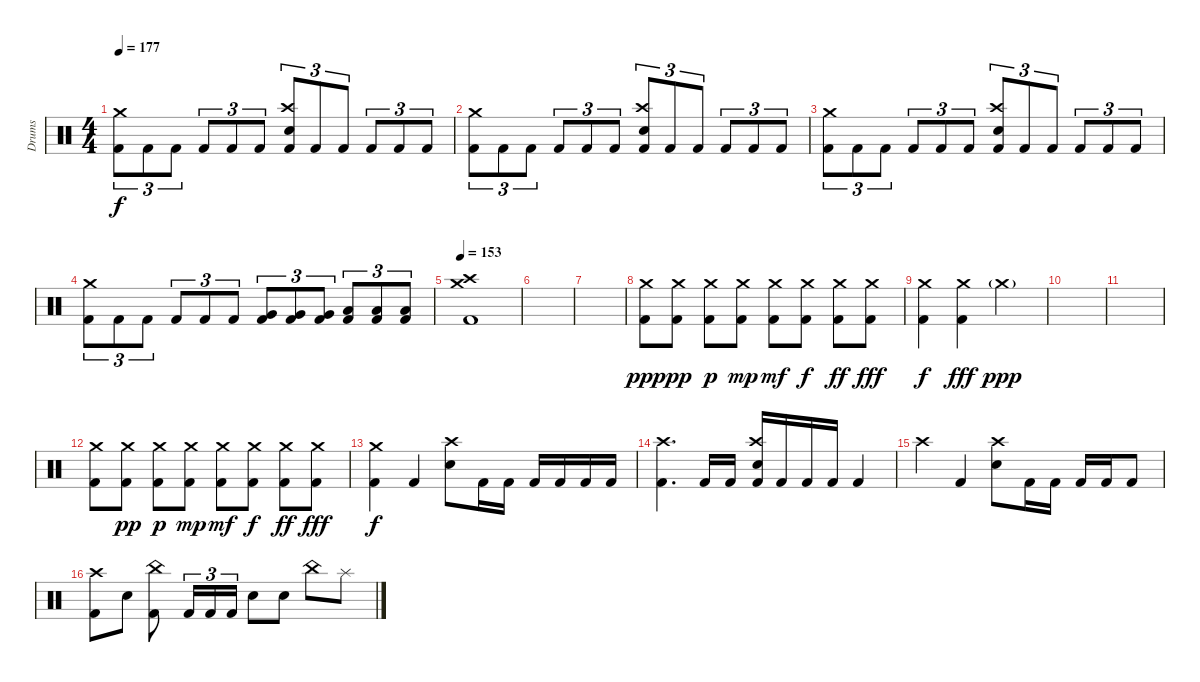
\track ("Drums" "Drums") {instrument percussion}
\staff
\articulation defaults
\ts (4 4)
\tempo 177
\clef neutral
\ks c
("Crash medium (hit)" "Kick (hit) 2").8{tu (3 2) dy f} "Kick (hit) 2".8{tu (3 2)} "Kick (hit) 2".8{tu (3 2)} "Kick (hit) 2".8{tu (3 2)} "Kick (hit) 2".8{tu (3 2)} "Kick (hit) 2".8{tu (3 2)} ("Crash high (hit)" "Electric Snare (hit)" "Kick (hit) 2").8{tu (3 2)} "Kick (hit) 2".8{tu (3 2)} "Kick (hit) 2".8{tu (3 2)} "Kick (hit) 2".8{tu (3 2)} "Kick (hit) 2".8{tu (3 2)} "Kick (hit) 2".8{tu (3 2)} |
("Crash medium (hit)" "Kick (hit) 2").8{tu (3 2)} "Kick (hit) 2".8{tu (3 2)} "Kick (hit) 2".8{tu (3 2)} "Kick (hit) 2".8{tu (3 2)} "Kick (hit) 2".8{tu (3 2)} "Kick (hit) 2".8{tu (3 2)} ("Crash high (hit)" "Electric Snare (hit)" "Kick (hit) 2").8{tu (3 2)} "Kick (hit) 2".8{tu (3 2)} "Kick (hit) 2".8{tu (3 2)} "Kick (hit) 2".8{tu (3 2)} "Kick (hit) 2".8{tu (3 2)} "Kick (hit) 2".8{tu (3 2)} |
("Crash medium (hit)" "Kick (hit) 2").8{tu (3 2)} "Kick (hit) 2".8{tu (3 2)} "Kick (hit) 2".8{tu (3 2)} "Kick (hit) 2".8{tu (3 2)} "Kick (hit) 2".8{tu (3 2)} "Kick (hit) 2".8{tu (3 2)} ("Crash high (hit)" "Electric Snare (hit)" "Kick (hit) 2").8{tu (3 2)} "Kick (hit) 2".8{tu (3 2)} "Kick (hit) 2".8{tu (3 2)} "Kick (hit) 2".8{tu (3 2)} "Kick (hit) 2".8{tu (3 2)} "Kick (hit) 2".8{tu (3 2)} |
("Crash medium (hit)" "Kick (hit) 2").8{tu (3 2)} "Kick (hit) 2".8{tu (3 2)} "Kick (hit) 2".8{tu (3 2)} "Kick (hit) 2".8{tu (3 2)} "Kick (hit) 2".8{tu (3 2)} "Kick (hit) 2".8{tu (3 2)} ("Very Low Tom (hit)" "Kick (hit) 2").8{tu (3 2)} ("Very Low Tom (hit)" "Kick (hit) 2").8{tu (3 2)} ("Very Low Tom (hit)" "Kick (hit) 2").8{tu (3 2)} ("Low Floor Tom (hit)" "Kick (hit) 2").8{tu (3 2)} ("Low Floor Tom (hit)" "Kick (hit) 2").8{tu (3 2)} ("Low Floor Tom (hit)" "Kick (hit) 2").8{tu (3 2)} |
\tempo 153
("Crash medium (hit)" "Crash high (hit)" "Kick (hit) 2").1 |
|
|
("Crash medium (hit)" "Kick (hit) 2").8{dy ppp} ("Crash medium (hit)" "Kick (hit) 2").8{dy pp} ("Crash medium (hit)" "Kick (hit) 2").8{dy p} ("Crash medium (hit)" "Kick (hit) 2").8{dy mp} ("Crash medium (hit)" "Kick (hit) 2").8{dy mf} ("Crash medium (hit)" "Kick (hit) 2").8{dy f} ("Crash medium (hit)" "Kick (hit) 2").8{dy ff} ("Crash medium (hit)" "Kick (hit) 2").8{dy fff} |
("Crash medium (hit)" "Kick (hit) 2").4{dy f} ("Crash medium (hit)" "Kick (hit) 2").4{dy fff} "Crash medium (hit)"{g}.2{dy ppp} |
|
|
("Crash medium (hit)" "Kick (hit) 2").8 ("Crash medium (hit)" "Kick (hit) 2").8{dy pp} ("Crash medium (hit)" "Kick (hit) 2").8{dy p} ("Crash medium (hit)" "Kick (hit) 2").8{dy mp} ("Crash medium (hit)" "Kick (hit) 2").8{dy mf} ("Crash medium (hit)" "Kick (hit) 2").8{dy f} ("Crash medium (hit)" "Kick (hit) 2").8{dy ff} ("Crash medium (hit)" "Kick (hit) 2").8{dy fff} |
("Crash medium (hit)" "Kick (hit) 2").4{dy f} "Kick (hit) 2".4 ("Crash high (hit)" "Electric Snare (hit)").8 "Kick (hit) 2".16 "Kick (hit) 2".16 "Kick (hit) 2".16 "Kick (hit) 2".16 "Kick (hit) 2".16 "Kick (hit) 2".16 |
("Crash high (hit)" "Kick (hit) 2").4{d} "Kick (hit) 2".16 "Kick (hit) 2".16 ("Crash high (hit)" "Electric Snare (hit)" "Kick (hit) 2").16 "Kick (hit) 2".16 "Kick (hit) 2".16 "Kick (hit) 2".16 "Kick (hit) 2".4 |
"Crash high (hit)".4 "Kick (hit) 2".4 ("Crash high (hit)" "Electric Snare (hit)").8 "Kick (hit) 2".16 "Kick (hit) 2".16 "Kick (hit) 2".16 "Kick (hit) 2".16 "Kick (hit) 2".8 |
("Crash high (hit)" "Kick (hit) 2").8 "Electric Snare (hit)".8 ("China (hit)" "Kick (hit) 2").8 "Kick (hit) 2".16{tu (3 2)} "Kick (hit) 2".16{tu (3 2)} "Kick (hit) 2".16{tu (3 2)} "Electric Snare (hit)".8 "Electric Snare (hit)".8 "China (hit)".8 "Splash (hit)".8
